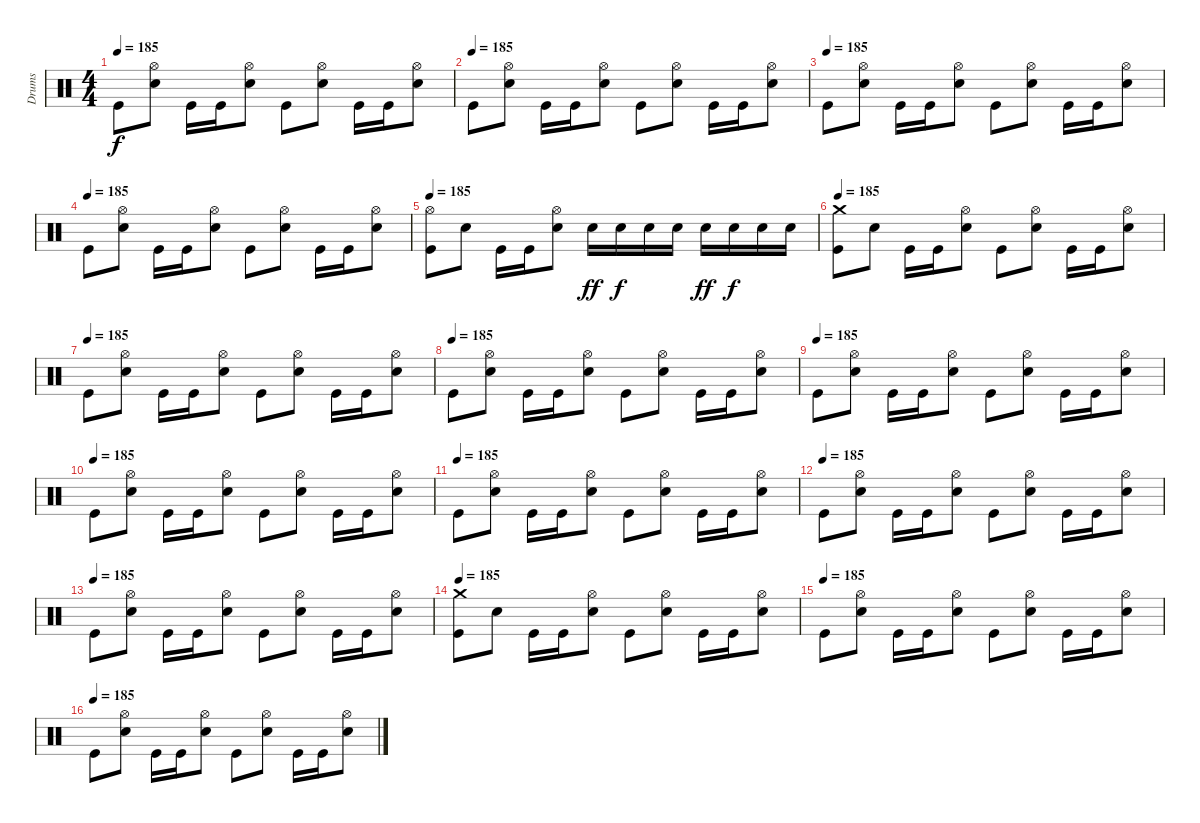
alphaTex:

\track ("Drums" "Drums") {instrument percussion}
\staff {score}
\articulation defaults
\ts (4 4)
\tempo 185
\clef neutral
\ks c "Kick (hit)".8{dy f}
("Hi-Hat (open)" "Electric Snare (hit)").8 "Kick (hit)".16 "Kick (hit)".16 ("Hi-Hat (open)" "Electric Snare (hit)").8 "Kick (hit)".8 ("Hi-Hat (open)" "Electric Snare (hit)").8 "Kick (hit)".16 "Kick (hit)".16 ("Hi-Hat (open)" "Electric Snare (hit)").8 |
\tempo (185)
"Kick (hit)".8 ("Hi-Hat (open)" "Electric Snare (hit)").8 "Kick (hit)".16 "Kick (hit)".16 ("Hi-Hat (open)" "Electric Snare (hit)").8 "Kick (hit)".8 ("Hi-Hat (open)" "Electric Snare (hit)").8 "Kick (hit)".16 "Kick (hit)".16 ("Hi-Hat (open)" "Electric Snare (hit)").8 |
\tempo (185)
"Kick (hit)".8 ("Hi-Hat (open)" "Electric Snare (hit)").8 "Kick (hit)".16 "Kick (hit)".16 ("Hi-Hat (open)" "Electric Snare (hit)").8 "Kick (hit)".8 ("Hi-Hat (open)" "Electric Snare (hit)").8 "Kick (hit)".16 "Kick (hit)".16 ("Hi-Hat (open)" "Electric Snare (hit)").8 |
\tempo (185)
"Kick (hit)".8 ("Hi-Hat (open)" "Electric Snare (hit)").8 "Kick (hit)".16 "Kick (hit)".16 ("Hi-Hat (open)" "Electric Snare (hit)").8 "Kick (hit)".8 ("Hi-Hat (open)" "Electric Snare (hit)").8 "Kick (hit)".16 "Kick (hit)".16 ("Hi-Hat (open)" "Electric Snare (hit)").8 |
\tempo 185
("Hi-Hat (open)" "Kick (hit)").8 "Electric Snare (hit)".8 "Kick (hit)".16 "Kick (hit)".16 ("Hi-Hat (open)" "Electric Snare (hit)").8 "Electric Snare (hit)".16{dy ff} "Electric Snare (hit)".16{dy f} "Electric Snare (hit)".16 "Electric Snare (hit)".16 "Electric Snare (hit)".16{dy ff} "Electric Snare (hit)".16{dy f} "Electric Snare (hit)".16 "Electric Snare (hit)".16 |
\tempo 185
("Crash medium (hit)" "Kick (hit)").8 "Electric Snare (hit)".8 "Kick (hit)".16 "Kick (hit)".16 ("Hi-Hat (open)" "Electric Snare (hit)").8 "Kick (hit)".8 ("Hi-Hat (open)" "Electric Snare (hit)").8 "Kick (hit)".16 "Kick (hit)".16 ("Hi-Hat (open)" "Electric Snare (hit)").8 |
\tempo (185)
"Kick (hit)".8 ("Hi-Hat (open)" "Electric Snare (hit)").8 "Kick (hit)".16 "Kick (hit)".16 ("Hi-Hat (open)" "Electric Snare (hit)").8 "Kick (hit)".8 ("Hi-Hat (open)" "Electric Snare (hit)").8 "Kick (hit)".16 "Kick (hit)".16 ("Hi-Hat (open)" "Electric Snare (hit)").8 |
\tempo (185)
"Kick (hit)".8 ("Hi-Hat (open)" "Electric Snare (hit)").8 "Kick (hit)".16 "Kick (hit)".16 ("Hi-Hat (open)" "Electric Snare (hit)").8 "Kick (hit)".8 ("Hi-Hat (open)" "Electric Snare (hit)").8 "Kick (hit)".16 "Kick (hit)".16 ("Hi-Hat (open)" "Electric Snare (hit)").8 |
\tempo (185)
"Kick (hit)".8 ("Hi-Hat (open)" "Electric Snare (hit)").8 "Kick (hit)".16 "Kick (hit)".16 ("Hi-Hat (open)" "Electric Snare (hit)").8 "Kick (hit)".8 ("Hi-Hat (open)" "Electric Snare (hit)").8 "Kick (hit)".16 "Kick (hit)".16 ("Hi-Hat (open)" "Electric Snare (hit)").8 |
\tempo (185)
"Kick (hit)".8 ("Hi-Hat (open)" "Electric Snare (hit)").8 "Kick (hit)".16 "Kick (hit)".16 ("Hi-Hat (open)" "Electric Snare (hit)").8 "Kick (hit)".8 ("Hi-Hat (open)" "Electric Snare (hit)").8 "Kick (hit)".16 "Kick (hit)".16 ("Hi-Hat (open)" "Electric Snare (hit)").8 |
\tempo (185)
"Kick (hit)".8 ("Hi-Hat (open)" "Electric Snare (hit)").8 "Kick (hit)".16 "Kick (hit)".16 ("Hi-Hat (open)" "Electric Snare (hit)").8 "Kick (hit)".8 ("Hi-Hat (open)" "Electric Snare (hit)").8 "Kick (hit)".16 "Kick (hit)".16 ("Hi-Hat (open)" "Electric Snare (hit)").8 |
\tempo (185)
"Kick (hit)".8 ("Hi-Hat (open)" "Electric Snare (hit)").8 "Kick (hit)".16 "Kick (hit)".16 ("Hi-Hat (open)" "Electric Snare (hit)").8 "Kick (hit)".8 ("Hi-Hat (open)" "Electric Snare (hit)").8 "Kick (hit)".16 "Kick (hit)".16 ("Hi-Hat (open)" "Electric Snare (hit)").8 |
\tempo (185)
"Kick (hit)".8 ("Hi-Hat (open)" "Electric Snare (hit)").8 "Kick (hit)".16 "Kick (hit)".16 ("Hi-Hat (open)" "Electric Snare (hit)").8 "Kick (hit)".8 ("Hi-Hat (open)" "Electric Snare (hit)").8 "Kick (hit)".16 "Kick (hit)".16 ("Hi-Hat (open)" "Electric Snare (hit)").8 |
\tempo 185
("Crash medium (hit)" "Kick (hit)").8 "Electric Snare (hit)".8 "Kick (hit)".16 "Kick (hit)".16 ("Hi-Hat (open)" "Electric Snare (hit)").8 "Kick (hit)".8 ("Hi-Hat (open)" "Electric Snare (hit)").8 "Kick (hit)".16 "Kick (hit)".16 ("Hi-Hat (open)" "Electric Snare (hit)").8 |
\tempo (185)
"Kick (hit)".8 ("Hi-Hat (open)" "Electric Snare (hit)").8 "Kick (hit)".16 "Kick (hit)".16 ("Hi-Hat (open)" "Electric Snare (hit)").8 "Kick (hit)".8 ("Hi-Hat (open)" "Electric Snare (hit)").8 "Kick (hit)".16 "Kick (hit)".16 ("Hi-Hat (open)" "Electric Snare (hit)").8 |
\tempo (185)
"Kick (hit)".8 ("Hi-Hat (open)" "Electric Snare (hit)").8 "Kick (hit)".16 "Kick (hit)".16 ("Hi-Hat (open)" "Electric Snare (hit)").8 "Kick (hit)".8 ("Hi-Hat (open)" "Electric Snare (hit)").8 "Kick (hit)".16 "Kick (hit)".16 ("Hi-Hat (open)" "Electric Snare (hit)").8
